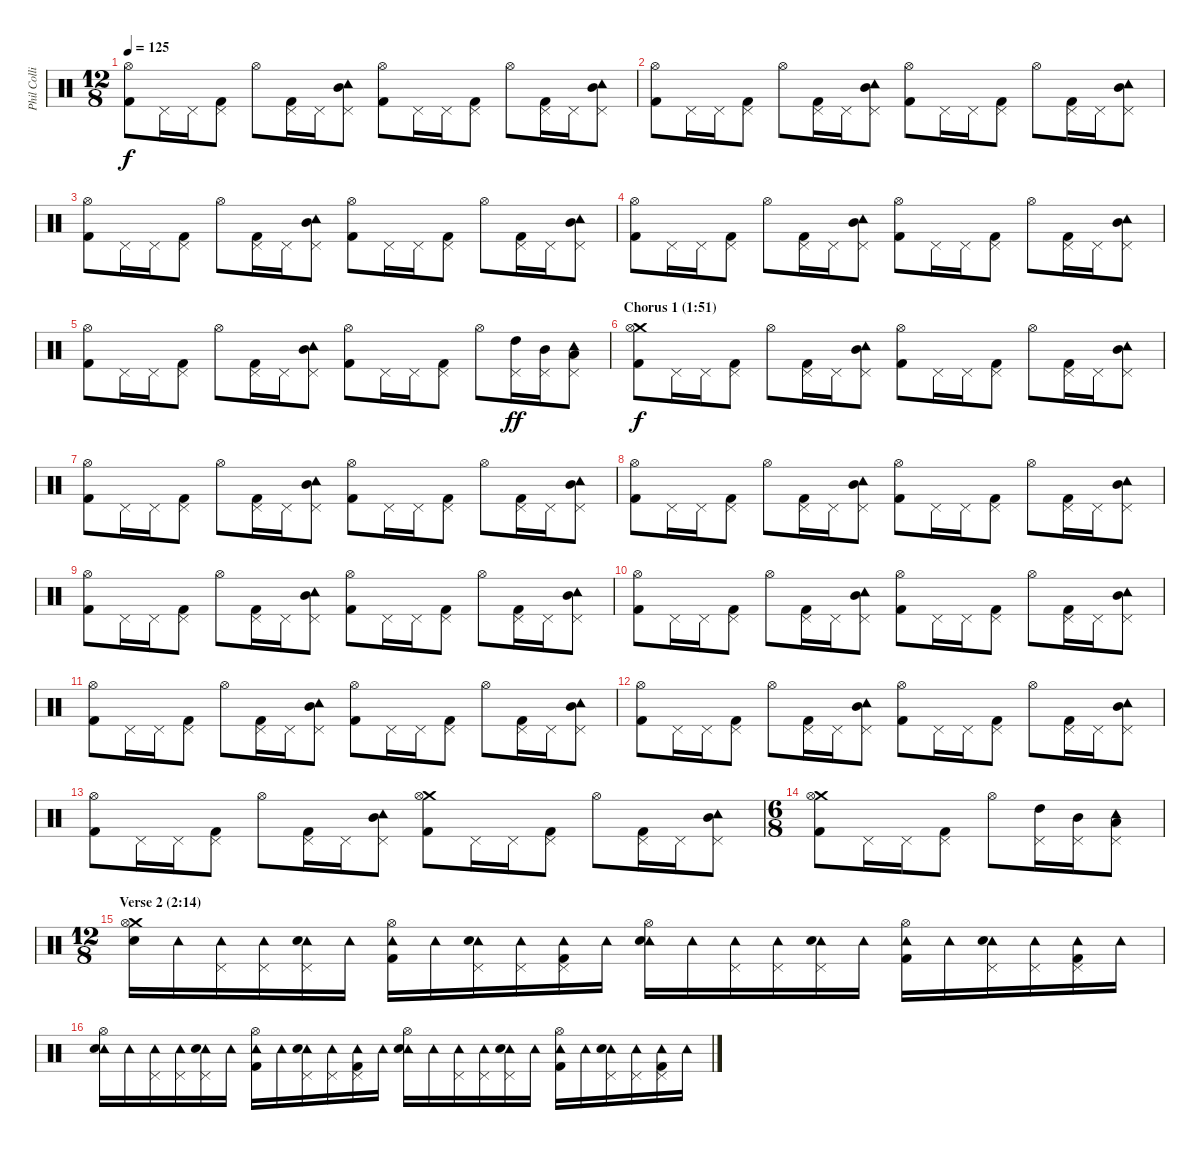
\track ("Phil Collins (drums)" "Phil Colli") {instrument percussion}
\staff {score}
\articulation defaults
\ts (12 8)
\tempo 125
\clef neutral
\ks c
("Hi-Hat (open)" "Kick (hit) 2").8{dy f} "Pedal Hi-Hat (hit)".16 "Pedal Hi-Hat (hit)".16 ("Pedal Hi-Hat (hit)" "Kick (hit) 2").8 "Hi-Hat (open)".8 ("Pedal Hi-Hat (hit)" "Kick (hit) 2").16 "Pedal Hi-Hat (hit)".16 ("Tambourine (hit)" "Pedal Hi-Hat (hit)" "Mid Tom (hit)").8 ("Hi-Hat (open)" "Kick (hit) 2").8 "Pedal Hi-Hat (hit)".16 "Pedal Hi-Hat (hit)".16 ("Pedal Hi-Hat (hit)" "Kick (hit) 2").8 "Hi-Hat (open)".8 ("Pedal Hi-Hat (hit)" "Kick (hit) 2").16 "Pedal Hi-Hat (hit)".16 ("Tambourine (hit)" "Pedal Hi-Hat (hit)" "Mid Tom (hit)").8 |
("Hi-Hat (open)" "Kick (hit) 2").8 "Pedal Hi-Hat (hit)".16 "Pedal Hi-Hat (hit)".16 ("Pedal Hi-Hat (hit)" "Kick (hit) 2").8 "Hi-Hat (open)".8 ("Pedal Hi-Hat (hit)" "Kick (hit) 2").16 "Pedal Hi-Hat (hit)".16 ("Tambourine (hit)" "Pedal Hi-Hat (hit)" "Mid Tom (hit)").8 ("Hi-Hat (open)" "Kick (hit) 2").8 "Pedal Hi-Hat (hit)".16 "Pedal Hi-Hat (hit)".16 ("Pedal Hi-Hat (hit)" "Kick (hit) 2").8 "Hi-Hat (open)".8 ("Pedal Hi-Hat (hit)" "Kick (hit) 2").16 "Pedal Hi-Hat (hit)".16 ("Tambourine (hit)" "Pedal Hi-Hat (hit)" "Mid Tom (hit)").8 |
("Hi-Hat (open)" "Kick (hit) 2").8 "Pedal Hi-Hat (hit)".16 "Pedal Hi-Hat (hit)".16 ("Pedal Hi-Hat (hit)" "Kick (hit) 2").8 "Hi-Hat (open)".8 ("Pedal Hi-Hat (hit)" "Kick (hit) 2").16 "Pedal Hi-Hat (hit)".16 ("Tambourine (hit)" "Pedal Hi-Hat (hit)" "Mid Tom (hit)").8 ("Hi-Hat (open)" "Kick (hit) 2").8 "Pedal Hi-Hat (hit)".16 "Pedal Hi-Hat (hit)".16 ("Pedal Hi-Hat (hit)" "Kick (hit) 2").8 "Hi-Hat (open)".8 ("Pedal Hi-Hat (hit)" "Kick (hit) 2").16 "Pedal Hi-Hat (hit)".16 ("Tambourine (hit)" "Pedal Hi-Hat (hit)" "Mid Tom (hit)").8 |
("Hi-Hat (open)" "Kick (hit) 2").8 "Pedal Hi-Hat (hit)".16 "Pedal Hi-Hat (hit)".16 ("Pedal Hi-Hat (hit)" "Kick (hit) 2").8 "Hi-Hat (open)".8 ("Pedal Hi-Hat (hit)" "Kick (hit) 2").16 "Pedal Hi-Hat (hit)".16 ("Tambourine (hit)" "Pedal Hi-Hat (hit)" "Mid Tom (hit)").8 ("Hi-Hat (open)" "Kick (hit) 2").8 "Pedal Hi-Hat (hit)".16 "Pedal Hi-Hat (hit)".16 ("Pedal Hi-Hat (hit)" "Kick (hit) 2").8 "Hi-Hat (open)".8 ("Pedal Hi-Hat (hit)" "Kick (hit) 2").16 "Pedal Hi-Hat (hit)".16 ("Tambourine (hit)" "Pedal Hi-Hat (hit)" "Mid Tom (hit)").8 |
("Hi-Hat (open)" "Kick (hit) 2").8 "Pedal Hi-Hat (hit)".16 "Pedal Hi-Hat (hit)".16 ("Pedal Hi-Hat (hit)" "Kick (hit) 2").8 "Hi-Hat (open)".8 ("Pedal Hi-Hat (hit)" "Kick (hit) 2").16 "Pedal Hi-Hat (hit)".16 ("Tambourine (hit)" "Pedal Hi-Hat (hit)" "Mid Tom (hit)").8 ("Hi-Hat (open)" "Kick (hit) 2").8 "Pedal Hi-Hat (hit)".16 "Pedal Hi-Hat (hit)".16 ("Pedal Hi-Hat (hit)" "Kick (hit) 2").8 "Hi-Hat (open)".8 ("Pedal Hi-Hat (hit)" "High Tom (hit)").16{dy ff} ("Pedal Hi-Hat (hit)" "Mid Tom (hit)").16 ("Tambourine (hit)" "Pedal Hi-Hat (hit)" "Low Tom (hit)").8 |
\section ("" "Chorus 1 (1:51)")
("Crash medium (hit)" "Hi-Hat (open)" "Kick (hit) 2").8{dy f} "Pedal Hi-Hat (hit)".16 "Pedal Hi-Hat (hit)".16 ("Pedal Hi-Hat (hit)" "Kick (hit) 2").8 "Hi-Hat (open)".8 ("Pedal Hi-Hat (hit)" "Kick (hit) 2").16 "Pedal Hi-Hat (hit)".16 ("Tambourine (hit)" "Pedal Hi-Hat (hit)" "Mid Tom (hit)").8 ("Hi-Hat (open)" "Kick (hit) 2").8 "Pedal Hi-Hat (hit)".16 "Pedal Hi-Hat (hit)".16 ("Pedal Hi-Hat (hit)" "Kick (hit) 2").8 "Hi-Hat (open)".8 ("Pedal Hi-Hat (hit)" "Kick (hit) 2").16 "Pedal Hi-Hat (hit)".16 ("Tambourine (hit)" "Pedal Hi-Hat (hit)" "Mid Tom (hit)").8 |
("Hi-Hat (open)" "Kick (hit) 2").8 "Pedal Hi-Hat (hit)".16 "Pedal Hi-Hat (hit)".16 ("Pedal Hi-Hat (hit)" "Kick (hit) 2").8 "Hi-Hat (open)".8 ("Pedal Hi-Hat (hit)" "Kick (hit) 2").16 "Pedal Hi-Hat (hit)".16 ("Tambourine (hit)" "Pedal Hi-Hat (hit)" "Mid Tom (hit)").8 ("Hi-Hat (open)" "Kick (hit) 2").8 "Pedal Hi-Hat (hit)".16 "Pedal Hi-Hat (hit)".16 ("Pedal Hi-Hat (hit)" "Kick (hit) 2").8 "Hi-Hat (open)".8 ("Pedal Hi-Hat (hit)" "Kick (hit) 2").16 "Pedal Hi-Hat (hit)".16 ("Tambourine (hit)" "Pedal Hi-Hat (hit)" "Mid Tom (hit)").8 |
("Hi-Hat (open)" "Kick (hit) 2").8 "Pedal Hi-Hat (hit)".16 "Pedal Hi-Hat (hit)".16 ("Pedal Hi-Hat (hit)" "Kick (hit) 2").8 "Hi-Hat (open)".8 ("Pedal Hi-Hat (hit)" "Kick (hit) 2").16 "Pedal Hi-Hat (hit)".16 ("Tambourine (hit)" "Pedal Hi-Hat (hit)" "Mid Tom (hit)").8 ("Hi-Hat (open)" "Kick (hit) 2").8 "Pedal Hi-Hat (hit)".16 "Pedal Hi-Hat (hit)".16 ("Pedal Hi-Hat (hit)" "Kick (hit) 2").8 "Hi-Hat (open)".8 ("Pedal Hi-Hat (hit)" "Kick (hit) 2").16 "Pedal Hi-Hat (hit)".16 ("Tambourine (hit)" "Pedal Hi-Hat (hit)" "Mid Tom (hit)").8 |
("Hi-Hat (open)" "Kick (hit) 2").8 "Pedal Hi-Hat (hit)".16 "Pedal Hi-Hat (hit)".16 ("Pedal Hi-Hat (hit)" "Kick (hit) 2").8 "Hi-Hat (open)".8 ("Pedal Hi-Hat (hit)" "Kick (hit) 2").16 "Pedal Hi-Hat (hit)".16 ("Tambourine (hit)" "Pedal Hi-Hat (hit)" "Mid Tom (hit)").8 ("Hi-Hat (open)" "Kick (hit) 2").8 "Pedal Hi-Hat (hit)".16 "Pedal Hi-Hat (hit)".16 ("Pedal Hi-Hat (hit)" "Kick (hit) 2").8 "Hi-Hat (open)".8 ("Pedal Hi-Hat (hit)" "Kick (hit) 2").16 "Pedal Hi-Hat (hit)".16 ("Tambourine (hit)" "Pedal Hi-Hat (hit)" "Mid Tom (hit)").8 |
("Hi-Hat (open)" "Kick (hit) 2").8 "Pedal Hi-Hat (hit)".16 "Pedal Hi-Hat (hit)".16 ("Pedal Hi-Hat (hit)" "Kick (hit) 2").8 "Hi-Hat (open)".8 ("Pedal Hi-Hat (hit)" "Kick (hit) 2").16 "Pedal Hi-Hat (hit)".16 ("Tambourine (hit)" "Pedal Hi-Hat (hit)" "Mid Tom (hit)").8 ("Hi-Hat (open)" "Kick (hit) 2").8 "Pedal Hi-Hat (hit)".16 "Pedal Hi-Hat (hit)".16 ("Pedal Hi-Hat (hit)" "Kick (hit) 2").8 "Hi-Hat (open)".8 ("Pedal Hi-Hat (hit)" "Kick (hit) 2").16 "Pedal Hi-Hat (hit)".16 ("Tambourine (hit)" "Pedal Hi-Hat (hit)" "Mid Tom (hit)").8 |
("Hi-Hat (open)" "Kick (hit) 2").8 "Pedal Hi-Hat (hit)".16 "Pedal Hi-Hat (hit)".16 ("Pedal Hi-Hat (hit)" "Kick (hit) 2").8 "Hi-Hat (open)".8 ("Pedal Hi-Hat (hit)" "Kick (hit) 2").16 "Pedal Hi-Hat (hit)".16 ("Tambourine (hit)" "Pedal Hi-Hat (hit)" "Mid Tom (hit)").8 ("Hi-Hat (open)" "Kick (hit) 2").8 "Pedal Hi-Hat (hit)".16 "Pedal Hi-Hat (hit)".16 ("Pedal Hi-Hat (hit)" "Kick (hit) 2").8 "Hi-Hat (open)".8 ("Pedal Hi-Hat (hit)" "Kick (hit) 2").16 "Pedal Hi-Hat (hit)".16 ("Tambourine (hit)" "Pedal Hi-Hat (hit)" "Mid Tom (hit)").8 |
("Hi-Hat (open)" "Kick (hit) 2").8 "Pedal Hi-Hat (hit)".16 "Pedal Hi-Hat (hit)".16 ("Pedal Hi-Hat (hit)" "Kick (hit) 2").8 "Hi-Hat (open)".8 ("Pedal Hi-Hat (hit)" "Kick (hit) 2").16 "Pedal Hi-Hat (hit)".16 ("Tambourine (hit)" "Pedal Hi-Hat (hit)" "Mid Tom (hit)").8 ("Hi-Hat (open)" "Kick (hit) 2").8 "Pedal Hi-Hat (hit)".16 "Pedal Hi-Hat (hit)".16 ("Pedal Hi-Hat (hit)" "Kick (hit) 2").8 "Hi-Hat (open)".8 ("Pedal Hi-Hat (hit)" "Kick (hit) 2").16 "Pedal Hi-Hat (hit)".16 ("Tambourine (hit)" "Pedal Hi-Hat (hit)" "Mid Tom (hit)").8 |
("Hi-Hat (open)" "Kick (hit) 2").8 "Pedal Hi-Hat (hit)".16 "Pedal Hi-Hat (hit)".16 ("Pedal Hi-Hat (hit)" "Kick (hit) 2").8 "Hi-Hat (open)".8 ("Pedal Hi-Hat (hit)" "Kick (hit) 2").16 "Pedal Hi-Hat (hit)".16 ("Tambourine (hit)" "Pedal Hi-Hat (hit)" "Mid Tom (hit)").8 ("Crash medium (hit)" "Hi-Hat (open)" "Kick (hit) 2").8 "Pedal Hi-Hat (hit)".16 "Pedal Hi-Hat (hit)".16 ("Pedal Hi-Hat (hit)" "Kick (hit) 2").8 "Hi-Hat (open)".8 ("Pedal Hi-Hat (hit)" "Kick (hit) 2").16 "Pedal Hi-Hat (hit)".16 ("Tambourine (hit)" "Pedal Hi-Hat (hit)" "Mid Tom (hit)").8 |
\ts (6 8)
("Crash medium (hit)" "Hi-Hat (open)" "Kick (hit) 2").8 "Pedal Hi-Hat (hit)".16 "Pedal Hi-Hat (hit)".16 ("Pedal Hi-Hat (hit)" "Kick (hit) 2").8 "Hi-Hat (open)".8 ("Pedal Hi-Hat (hit)" "High Tom (hit)").16 ("Pedal Hi-Hat (hit)" "Mid Tom (hit)").16 ("Tambourine (hit)" "Pedal Hi-Hat (hit)" "Low Tom (hit)").8 |
\ts (12 8)
\section ("" "Verse 2 (2:14)")
("Crash medium (hit)" "Hi-Hat (open)" "Electric Snare (hit)").16 "Tambourine (hit)".16 ("Tambourine (hit)" "Pedal Hi-Hat (hit)").16 ("Tambourine (hit)" "Pedal Hi-Hat (hit)").16 ("Tambourine (hit)" "Pedal Hi-Hat (hit)" "Electric Snare (hit)").16 "Tambourine (hit)".16 ("Tambourine (hit)" "Hi-Hat (open)" "Kick (hit) 2").16 "Tambourine (hit)".16 ("Tambourine (hit)" "Pedal Hi-Hat (hit)" "Electric Snare (hit)").16 ("Tambourine (hit)" "Pedal Hi-Hat (hit)").16 ("Tambourine (hit)" "Pedal Hi-Hat (hit)" "Kick (hit) 2").16 "Tambourine (hit)".16 ("Tambourine (hit)" "Hi-Hat (open)" "Electric Snare (hit)").16 "Tambourine (hit)".16 ("Tambourine (hit)" "Pedal Hi-Hat (hit)").16 ("Tambourine (hit)" "Pedal Hi-Hat (hit)").16 ("Tambourine (hit)" "Pedal Hi-Hat (hit)" "Electric Snare (hit)").16 "Tambourine (hit)".16 ("Tambourine (hit)" "Hi-Hat (open)" "Kick (hit) 2").16 "Tambourine (hit)".16 ("Tambourine (hit)" "Pedal Hi-Hat (hit)" "Electric Snare (hit)").16 ("Tambourine (hit)" "Pedal Hi-Hat (hit)").16 ("Tambourine (hit)" "Pedal Hi-Hat (hit)" "Kick (hit) 2").16 "Tambourine (hit)".16 |
("Tambourine (hit)" "Hi-Hat (open)" "Electric Snare (hit)").16 "Tambourine (hit)".16 ("Tambourine (hit)" "Pedal Hi-Hat (hit)").16 ("Tambourine (hit)" "Pedal Hi-Hat (hit)").16 ("Tambourine (hit)" "Pedal Hi-Hat (hit)" "Electric Snare (hit)").16 "Tambourine (hit)".16 ("Tambourine (hit)" "Hi-Hat (open)" "Kick (hit) 2").16 "Tambourine (hit)".16 ("Tambourine (hit)" "Pedal Hi-Hat (hit)" "Electric Snare (hit)").16 ("Tambourine (hit)" "Pedal Hi-Hat (hit)").16 ("Tambourine (hit)" "Pedal Hi-Hat (hit)" "Kick (hit) 2").16 "Tambourine (hit)".16 ("Tambourine (hit)" "Hi-Hat (open)" "Electric Snare (hit)").16 "Tambourine (hit)".16 ("Tambourine (hit)" "Pedal Hi-Hat (hit)").16 ("Tambourine (hit)" "Pedal Hi-Hat (hit)").16 ("Tambourine (hit)" "Pedal Hi-Hat (hit)" "Electric Snare (hit)").16 "Tambourine (hit)".16 ("Tambourine (hit)" "Hi-Hat (open)" "Kick (hit) 2").16 "Tambourine (hit)".16 ("Tambourine (hit)" "Pedal Hi-Hat (hit)" "Electric Snare (hit)").16 ("Tambourine (hit)" "Pedal Hi-Hat (hit)").16 ("Tambourine (hit)" "Pedal Hi-Hat (hit)" "Kick (hit) 2").16 "Tambourine (hit)".16
